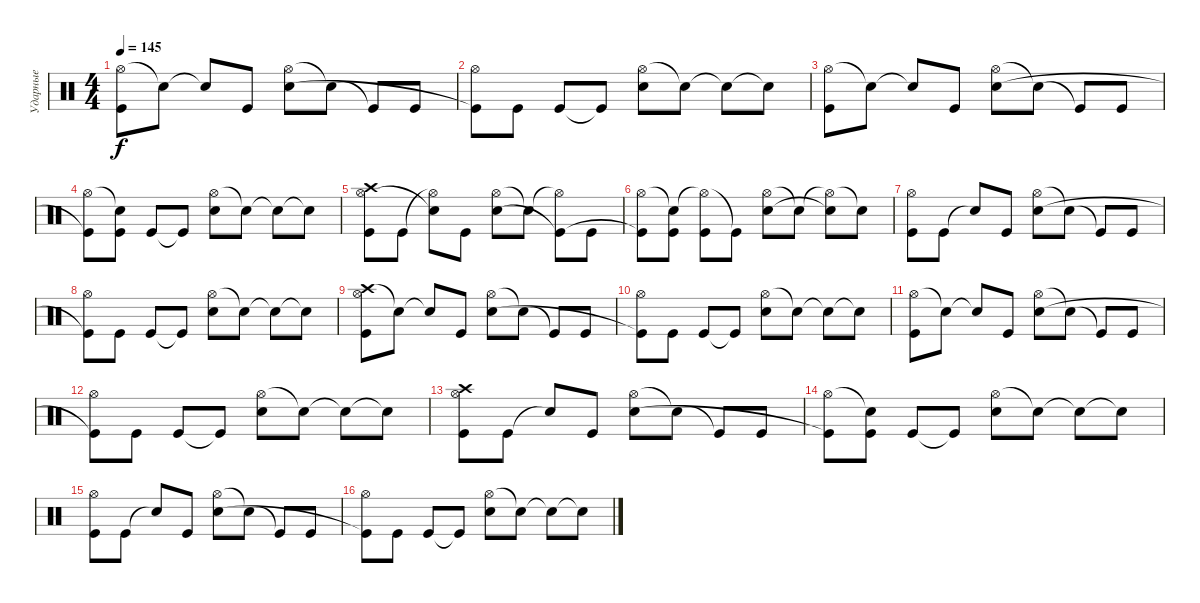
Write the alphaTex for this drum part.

\track ("Ударные" "Ударные") {instrument percussion}
\staff {score}
\articulation defaults
\ts (4 4)
\tempo 145
\clef neutral
\ks c
("Hi-Hat (open)" "Kick (hit)").8{dy f} "Snare (hit)"{t}.8 "Snare (hit)"{t}.8 "Kick (hit)".8 ("Hi-Hat (open)" "Snare (hit) 2").8 "Snare (hit)"{t}.8 "Kick (hit)"{t}.8 "Kick (hit)".8 |
("Hi-Hat (open)" "Kick (hit)"{t}).8 "Kick (hit)".8 "Kick (hit)".8 "Kick (hit)"{t}.8 ("Hi-Hat (open)" "Snare (hit) 2").8 "Snare (hit)"{t}.8 "Snare (hit)"{t}.8 "Snare (hit)"{t}.8 |
("Hi-Hat (open)" "Kick (hit)").8 "Snare (hit)"{t}.8 "Snare (hit)"{t}.8 "Kick (hit)".8 ("Hi-Hat (open)" "Snare (hit) 2").8 "Snare (hit)"{t}.8 "Kick (hit)"{t}.8 "Kick (hit)".8 |
("Hi-Hat (open)" "Kick (hit)"{t}).8 ("Snare (hit)"{t} "Kick (hit)").8 "Kick (hit)".8 "Kick (hit)"{t}.8 ("Hi-Hat (open)" "Snare (hit) 2").8 "Snare (hit)"{t}.8 "Snare (hit)"{t}.8 "Snare (hit)"{t}.8 |
("Crash high (hit)" "Hi-Hat (open)" "Kick (hit)").8 "Kick (hit)".8 ("Hi-Hat (open)"{t} "Snare (hit)"{t}).8 "Kick (hit)".8 ("Hi-Hat (open)" "Snare (hit) 2").8 "Snare (hit)"{t}.8 ("Hi-Hat (open)"{t} "Kick (hit)"{t}).8 "Kick (hit)".8 |
("Hi-Hat (open)" "Kick (hit)"{t}).8 ("Snare (hit)"{t} "Kick (hit)").8 ("Hi-Hat (open)"{t} "Kick (hit)").8 "Kick (hit)"{t}.8 ("Hi-Hat (open)" "Snare (hit) 2").8 "Snare (hit)"{t}.8 ("Hi-Hat (open)"{t} "Snare (hit)"{t}).8 "Snare (hit)"{t}.8 |
("Hi-Hat (open)" "Kick (hit)").8 "Kick (hit)".8 "Snare (hit)"{t}.8 "Kick (hit)".8 ("Hi-Hat (open)" "Snare (hit) 2").8 "Snare (hit)"{t}.8 "Kick (hit)"{t}.8 "Kick (hit)".8 |
("Hi-Hat (open)" "Kick (hit)"{t}).8 "Kick (hit)".8 "Kick (hit)".8 "Kick (hit)"{t}.8 ("Hi-Hat (open)" "Snare (hit) 2").8 "Snare (hit)"{t}.8 "Snare (hit)"{t}.8 "Snare (hit)"{t}.8 |
("Crash high (hit)" "Hi-Hat (open)" "Kick (hit)").8 "Snare (hit)"{t}.8 "Snare (hit)"{t}.8 "Kick (hit)".8 ("Hi-Hat (open)" "Snare (hit) 2").8 "Snare (hit)"{t}.8 "Kick (hit)"{t}.8 "Kick (hit)".8 |
("Hi-Hat (open)" "Kick (hit)"{t}).8 "Kick (hit)".8 "Kick (hit)".8 "Kick (hit)"{t}.8 ("Hi-Hat (open)" "Snare (hit) 2").8 "Snare (hit)"{t}.8 "Snare (hit)"{t}.8 "Snare (hit)"{t}.8 |
("Hi-Hat (open)" "Kick (hit)").8 "Snare (hit)"{t}.8 "Snare (hit)"{t}.8 "Kick (hit)".8 ("Hi-Hat (open)" "Snare (hit) 2").8 "Snare (hit)"{t}.8 "Kick (hit)"{t}.8 "Kick (hit)".8 |
("Hi-Hat (open)" "Kick (hit)"{t}).8 "Kick (hit)".8 "Kick (hit)".8 "Kick (hit)"{t}.8 ("Hi-Hat (open)" "Snare (hit) 2").8 "Snare (hit)"{t}.8 "Snare (hit)"{t}.8 "Snare (hit)"{t}.8 |
("Crash high (hit)" "Hi-Hat (open)" "Kick (hit)").8 "Kick (hit)".8 "Snare (hit)"{t}.8 "Kick (hit)".8 ("Hi-Hat (open)" "Snare (hit) 2").8 "Snare (hit)"{t}.8 "Kick (hit)"{t}.8 "Kick (hit)".8 |
("Hi-Hat (open)" "Kick (hit)"{t}).8 ("Snare (hit)"{t} "Kick (hit)").8 "Kick (hit)".8 "Kick (hit)"{t}.8 ("Hi-Hat (open)" "Snare (hit) 2").8 "Snare (hit)"{t}.8 "Snare (hit)"{t}.8 "Snare (hit)"{t}.8 |
("Hi-Hat (open)" "Kick (hit)").8 "Kick (hit)".8 "Snare (hit)"{t}.8 "Kick (hit)".8 ("Hi-Hat (open)" "Snare (hit) 2").8 "Snare (hit)"{t}.8 "Kick (hit)"{t}.8 "Kick (hit)".8 |
("Hi-Hat (open)" "Kick (hit)"{t}).8 "Kick (hit)".8 "Kick (hit)".8 "Kick (hit)"{t}.8 ("Hi-Hat (open)" "Snare (hit) 2").8 "Snare (hit)"{t}.8 "Snare (hit)"{t}.8 "Snare (hit)"{t}.8
